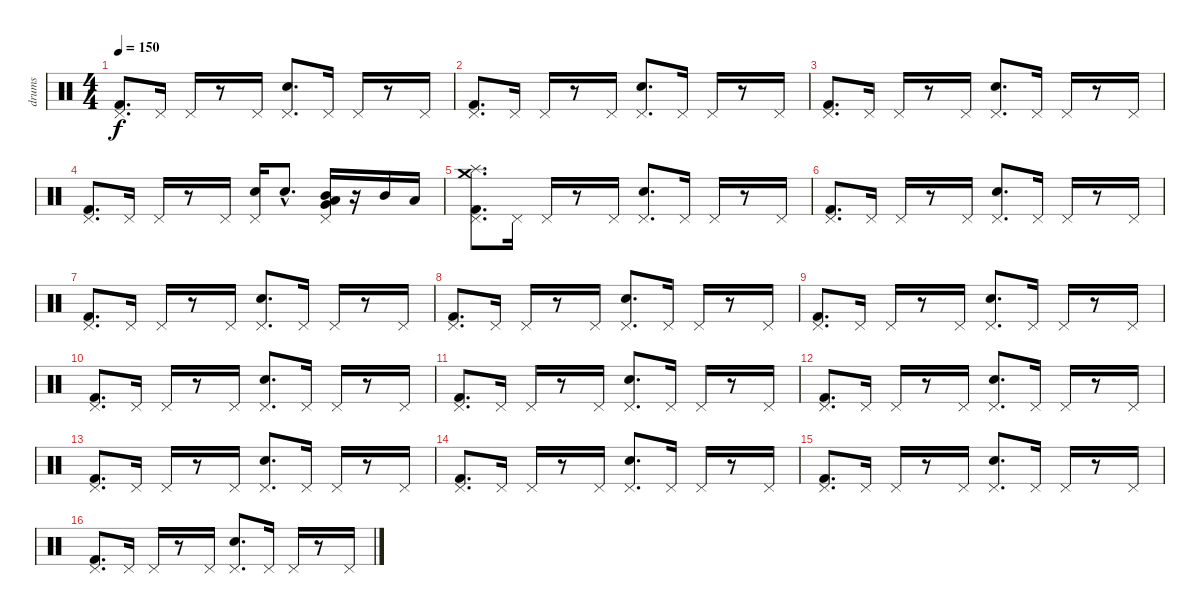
\track ("drums" "drums") {instrument percussion}
\staff {score}
\articulation defaults
\ts (4 4)
\tempo 150
\clef neutral
\ks c
("Kick (hit) 2" "Pedal Hi-Hat (hit)").8{d dy f} "Pedal Hi-Hat (hit)".16 "Pedal Hi-Hat (hit)".16 r.8 "Pedal Hi-Hat (hit)".16 ("Snare (hit) 2" "Pedal Hi-Hat (hit)").8{d} "Pedal Hi-Hat (hit)".16 "Pedal Hi-Hat (hit)".16 r.8 "Pedal Hi-Hat (hit)".16 |
("Kick (hit) 2" "Pedal Hi-Hat (hit)").8{d} "Pedal Hi-Hat (hit)".16 "Pedal Hi-Hat (hit)".16 r.8 "Pedal Hi-Hat (hit)".16 ("Snare (hit) 2" "Pedal Hi-Hat (hit)").8{d} "Pedal Hi-Hat (hit)".16 "Pedal Hi-Hat (hit)".16 r.8 "Pedal Hi-Hat (hit)".16 |
("Kick (hit) 2" "Pedal Hi-Hat (hit)").8{d} "Pedal Hi-Hat (hit)".16 "Pedal Hi-Hat (hit)".16 r.8 "Pedal Hi-Hat (hit)".16 ("Snare (hit) 2" "Pedal Hi-Hat (hit)").8{d} "Pedal Hi-Hat (hit)".16 "Pedal Hi-Hat (hit)".16 r.8 "Pedal Hi-Hat (hit)".16 |
("Kick (hit) 2" "Pedal Hi-Hat (hit)").8{d} "Pedal Hi-Hat (hit)".16 "Pedal Hi-Hat (hit)".16 r.8 "Pedal Hi-Hat (hit)".16 ("Snare (hit) 2" "Pedal Hi-Hat (hit)").16 "Snare (hit) 2"{hac}.8{d} ("Pedal Hi-Hat (hit)" "Very Low Tom (hit)" "Low Floor Tom (hit)" "Mid Tom (hit)").16 r.16 "Mid Tom (hit)".16 "Low Tom (hit)".16 |
("Crash medium (hit)" "Splash (hit)" "Kick (hit) 2" "Pedal Hi-Hat (hit)").8{d} "Pedal Hi-Hat (hit)".16 "Pedal Hi-Hat (hit)".16 r.8 "Pedal Hi-Hat (hit)".16 ("Snare (hit) 2" "Pedal Hi-Hat (hit)").8{d} "Pedal Hi-Hat (hit)".16 "Pedal Hi-Hat (hit)".16 r.8 "Pedal Hi-Hat (hit)".16 |
("Kick (hit) 2" "Pedal Hi-Hat (hit)").8{d} "Pedal Hi-Hat (hit)".16 "Pedal Hi-Hat (hit)".16 r.8 "Pedal Hi-Hat (hit)".16 ("Snare (hit) 2" "Pedal Hi-Hat (hit)").8{d} "Pedal Hi-Hat (hit)".16 "Pedal Hi-Hat (hit)".16 r.8 "Pedal Hi-Hat (hit)".16 |
("Kick (hit) 2" "Pedal Hi-Hat (hit)").8{d} "Pedal Hi-Hat (hit)".16 "Pedal Hi-Hat (hit)".16 r.8 "Pedal Hi-Hat (hit)".16 ("Snare (hit) 2" "Pedal Hi-Hat (hit)").8{d} "Pedal Hi-Hat (hit)".16 "Pedal Hi-Hat (hit)".16 r.8 "Pedal Hi-Hat (hit)".16 |
("Kick (hit) 2" "Pedal Hi-Hat (hit)").8{d} "Pedal Hi-Hat (hit)".16 "Pedal Hi-Hat (hit)".16 r.8 "Pedal Hi-Hat (hit)".16 ("Snare (hit) 2" "Pedal Hi-Hat (hit)").8{d} "Pedal Hi-Hat (hit)".16 "Pedal Hi-Hat (hit)".16 r.8 "Pedal Hi-Hat (hit)".16 |
("Kick (hit) 2" "Pedal Hi-Hat (hit)").8{d} "Pedal Hi-Hat (hit)".16 "Pedal Hi-Hat (hit)".16 r.8 "Pedal Hi-Hat (hit)".16 ("Snare (hit) 2" "Pedal Hi-Hat (hit)").8{d} "Pedal Hi-Hat (hit)".16 "Pedal Hi-Hat (hit)".16 r.8 "Pedal Hi-Hat (hit)".16 |
("Kick (hit) 2" "Pedal Hi-Hat (hit)").8{d} "Pedal Hi-Hat (hit)".16 "Pedal Hi-Hat (hit)".16 r.8 "Pedal Hi-Hat (hit)".16 ("Snare (hit) 2" "Pedal Hi-Hat (hit)").8{d} "Pedal Hi-Hat (hit)".16 "Pedal Hi-Hat (hit)".16 r.8 "Pedal Hi-Hat (hit)".16 |
("Kick (hit) 2" "Pedal Hi-Hat (hit)").8{d} "Pedal Hi-Hat (hit)".16 "Pedal Hi-Hat (hit)".16 r.8 "Pedal Hi-Hat (hit)".16 ("Snare (hit) 2" "Pedal Hi-Hat (hit)").8{d} "Pedal Hi-Hat (hit)".16 "Pedal Hi-Hat (hit)".16 r.8 "Pedal Hi-Hat (hit)".16 |
("Kick (hit) 2" "Pedal Hi-Hat (hit)").8{d} "Pedal Hi-Hat (hit)".16 "Pedal Hi-Hat (hit)".16 r.8 "Pedal Hi-Hat (hit)".16 ("Snare (hit) 2" "Pedal Hi-Hat (hit)").8{d} "Pedal Hi-Hat (hit)".16 "Pedal Hi-Hat (hit)".16 r.8 "Pedal Hi-Hat (hit)".16 |
("Kick (hit) 2" "Pedal Hi-Hat (hit)").8{d} "Pedal Hi-Hat (hit)".16 "Pedal Hi-Hat (hit)".16 r.8 "Pedal Hi-Hat (hit)".16 ("Snare (hit) 2" "Pedal Hi-Hat (hit)").8{d} "Pedal Hi-Hat (hit)".16 "Pedal Hi-Hat (hit)".16 r.8 "Pedal Hi-Hat (hit)".16 |
("Kick (hit) 2" "Pedal Hi-Hat (hit)").8{d} "Pedal Hi-Hat (hit)".16 "Pedal Hi-Hat (hit)".16 r.8 "Pedal Hi-Hat (hit)".16 ("Snare (hit) 2" "Pedal Hi-Hat (hit)").8{d} "Pedal Hi-Hat (hit)".16 "Pedal Hi-Hat (hit)".16 r.8 "Pedal Hi-Hat (hit)".16 |
("Kick (hit) 2" "Pedal Hi-Hat (hit)").8{d} "Pedal Hi-Hat (hit)".16 "Pedal Hi-Hat (hit)".16 r.8 "Pedal Hi-Hat (hit)".16 ("Snare (hit) 2" "Pedal Hi-Hat (hit)").8{d} "Pedal Hi-Hat (hit)".16 "Pedal Hi-Hat (hit)".16 r.8 "Pedal Hi-Hat (hit)".16 |
("Kick (hit) 2" "Pedal Hi-Hat (hit)").8{d} "Pedal Hi-Hat (hit)".16 "Pedal Hi-Hat (hit)".16 r.8 "Pedal Hi-Hat (hit)".16 ("Snare (hit) 2" "Pedal Hi-Hat (hit)").8{d} "Pedal Hi-Hat (hit)".16 "Pedal Hi-Hat (hit)".16 r.8 "Pedal Hi-Hat (hit)".16
